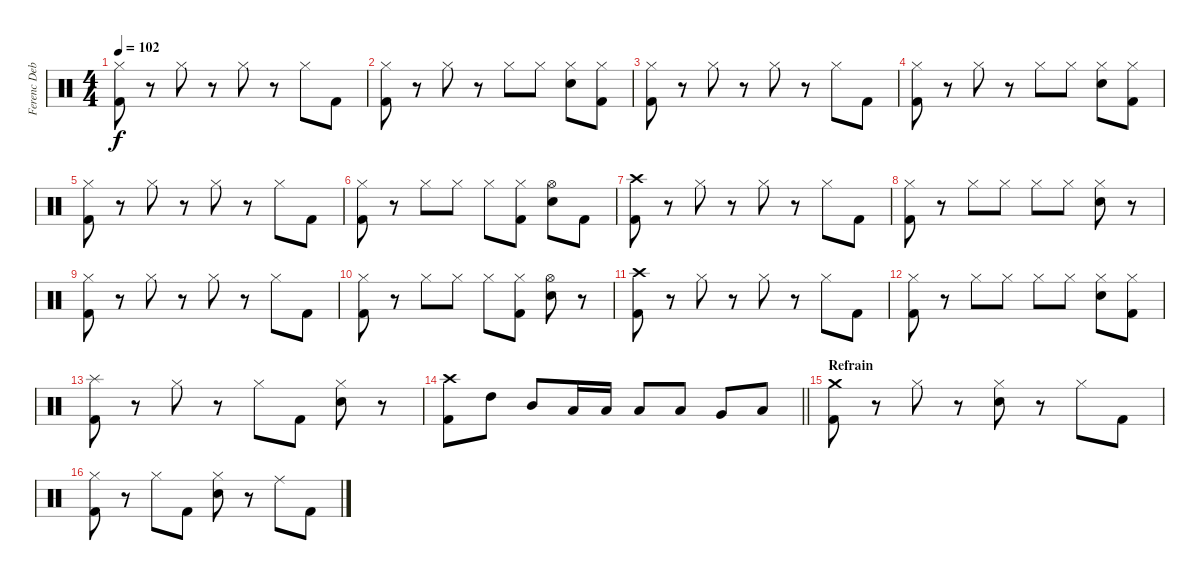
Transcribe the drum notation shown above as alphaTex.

\track ("Ferenc Debreczeni - drums" "Ferenc Deb") {instrument percussion}
\staff {score}
\articulation defaults
\ts (4 4)
\tempo 102
\clef neutral
\ks c
("Hi-Hat (closed)" "Kick (hit) 2").8{dy f} r.8 "Hi-Hat (closed)".8 r.8 "Hi-Hat (closed)".8 r.8 "Hi-Hat (closed)".8 "Kick (hit) 2".8 |
("Hi-Hat (closed)" "Kick (hit) 2").8 r.8 "Hi-Hat (closed)".8 r.8 "Hi-Hat (closed)".8 "Hi-Hat (closed)".8 ("Hi-Hat (closed)" "Snare (hit) 2").8 ("Hi-Hat (closed)" "Kick (hit) 2").8 |
("Hi-Hat (closed)" "Kick (hit) 2").8 r.8 "Hi-Hat (closed)".8 r.8 "Hi-Hat (closed)".8 r.8 "Hi-Hat (closed)".8 "Kick (hit) 2".8 |
("Hi-Hat (closed)" "Kick (hit) 2").8 r.8 "Hi-Hat (closed)".8 r.8 "Hi-Hat (closed)".8 "Hi-Hat (closed)".8 ("Hi-Hat (closed)" "Snare (hit) 2").8 ("Hi-Hat (closed)" "Kick (hit) 2").8 |
("Hi-Hat (closed)" "Kick (hit) 2").8 r.8 "Hi-Hat (closed)".8 r.8 "Hi-Hat (closed)".8 r.8 "Hi-Hat (closed)".8 "Kick (hit) 2".8 |
("Hi-Hat (closed)" "Kick (hit) 2").8 r.8 "Hi-Hat (closed)".8 "Hi-Hat (closed)".8 "Hi-Hat (closed)".8 ("Hi-Hat (closed)" "Kick (hit) 2").8 ("Hi-Hat (open)" "Snare (hit) 2").8 "Kick (hit) 2".8 |
("Crash high (hit)" "Kick (hit) 2").8 r.8 "Hi-Hat (closed)".8 r.8 "Hi-Hat (closed)".8 r.8 "Hi-Hat (closed)".8 "Kick (hit) 2".8 |
("Hi-Hat (closed)" "Kick (hit) 2").8 r.8 "Hi-Hat (closed)".8 "Hi-Hat (closed)".8 "Hi-Hat (closed)".8 "Hi-Hat (closed)".8 ("Hi-Hat (closed)" "Snare (hit) 2").8 r.8 |
("Hi-Hat (closed)" "Kick (hit) 2").8 r.8 "Hi-Hat (closed)".8 r.8 "Hi-Hat (closed)".8 r.8 "Hi-Hat (closed)".8 "Kick (hit) 2".8 |
("Hi-Hat (closed)" "Kick (hit) 2").8 r.8 "Hi-Hat (closed)".8 "Hi-Hat (closed)".8 "Hi-Hat (closed)".8 ("Hi-Hat (closed)" "Kick (hit) 2").8 ("Hi-Hat (open)" "Snare (hit) 2").8 r.8 |
("Crash high (hit)" "Kick (hit) 2").8 r.8 "Hi-Hat (closed)".8 r.8 "Hi-Hat (closed)".8 r.8 "Hi-Hat (closed)".8 "Kick (hit) 2".8 |
("Hi-Hat (closed)" "Kick (hit) 2").8 r.8 "Hi-Hat (closed)".8 "Hi-Hat (closed)".8 "Hi-Hat (closed)".8 "Hi-Hat (closed)".8 ("Hi-Hat (closed)" "Snare (hit) 2").8 ("Hi-Hat (closed)" "Kick (hit) 2").8 |
("Splash (hit)" "Kick (hit) 2").8 r.8 "Hi-Hat (closed)".8 r.8 "Hi-Hat (closed)".8 "Kick (hit) 2".8 ("Hi-Hat (closed)" "Snare (hit) 2").8 r.8 |
\barLineRight lightlight
("Crash high (hit)" "Kick (hit) 2").8 "High Tom (hit)".8 "Mid Tom (hit)".8 "Low Tom (hit)".16 "Low Tom (hit)".16 "Low Tom (hit)".8 "Low Floor Tom (hit)".8 "Very Low Tom (hit)".8 "Low Floor Tom (hit)".8 |
\section ("" "Refrain")
("Kick (hit) 2" "Crash medium (hit)").8 r.8 "Hi-Hat (closed)".8 r.8 ("Snare (hit) 2" "Hi-Hat (closed)").8 r.8 "Hi-Hat (closed)".8 "Kick (hit) 2".8 |
("Kick (hit) 2" "Hi-Hat (closed)").8 r.8 "Hi-Hat (closed)".8 "Kick (hit) 2".8 ("Snare (hit) 2" "Hi-Hat (closed)").8 r.8 "Ride (middle)".8 "Kick (hit) 2".8
